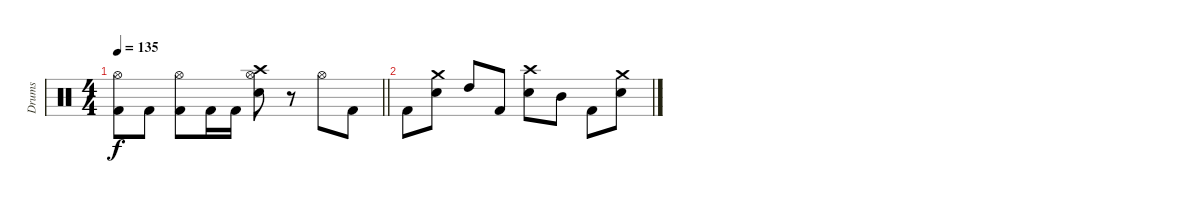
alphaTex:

\track ("Drums" "Drums") {instrument percussion}
\staff {score}
\articulation defaults
\ts (4 4)
\tempo 135
\clef neutral
\barLineRight lightlight
\ks c
("Hi-Hat (open)" "Kick (hit) 2").8{dy f} "Kick (hit) 2".8 ("Hi-Hat (open)" "Kick (hit) 2").8 "Kick (hit) 2".16 "Kick (hit) 2".16 ("Crash high (hit)" "Hi-Hat (open)" "Electric Snare (hit)").8 r.8 "Hi-Hat (open)".8 "Kick (hit) 2".8 |
\section ("" "")
"Kick (hit) 2".8 ("Crash medium (hit)" "Electric Snare (hit)").8 "High Tom (hit)".8 "Kick (hit) 2".8 ("Crash high (hit)" "Electric Snare (hit)").8 "Mid Tom (hit)".8 "Kick (hit) 2".8 ("Crash medium (hit)" "Electric Snare (hit)").8
